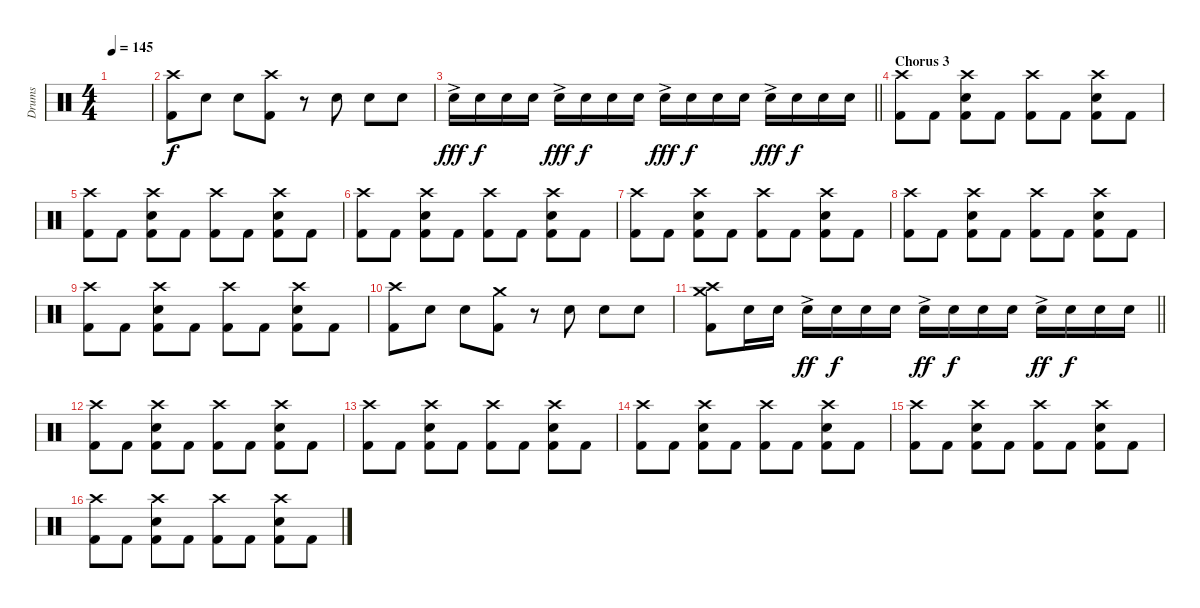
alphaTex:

\track ("Drums" "Drums") {instrument percussion}
\staff {score}
\articulation defaults
\ts (4 4)
\tempo 145
\clef neutral
\ks c
|
("Crash high (hit)" "Kick (hit) 2").8 "Snare (hit) 2".8 "Snare (hit) 2".8 ("Crash high (hit)" "Kick (hit) 2").8 r.8 "Snare (hit) 2".8 "Snare (hit) 2".8 "Snare (hit) 2".8 |
\barLineRight lightlight "Snare (hit) 2"{ac}.16{dy fff} "Snare (hit) 2".16{dy f} "Snare (hit) 2".16 "Snare (hit) 2".16 "Snare (hit) 2"{ac}.16{dy fff} "Snare (hit) 2".16{dy f} "Snare (hit) 2".16 "Snare (hit) 2".16 "Snare (hit) 2"{ac}.16{dy fff} "Snare (hit) 2".16{dy f} "Snare (hit) 2".16 "Snare (hit) 2".16 "Snare (hit) 2"{ac}.16{dy fff} "Snare (hit) 2".16{dy f} "Snare (hit) 2".16 "Snare (hit) 2".16
|
\section ("" "Chorus 3")
("Crash high (hit)" "Kick (hit) 2").8 "Kick (hit) 2".8 ("Crash high (hit)" "Snare (hit) 2" "Kick (hit) 2").8 "Kick (hit) 2".8 ("Crash high (hit)" "Kick (hit) 2").8 "Kick (hit) 2".8 ("Crash high (hit)" "Snare (hit) 2" "Kick (hit) 2").8 "Kick (hit) 2".8 |
("Crash high (hit)" "Kick (hit) 2").8 "Kick (hit) 2".8 ("Crash high (hit)" "Snare (hit) 2" "Kick (hit) 2").8 "Kick (hit) 2".8 ("Crash high (hit)" "Kick (hit) 2").8 "Kick (hit) 2".8 ("Crash high (hit)" "Snare (hit) 2" "Kick (hit) 2").8 "Kick (hit) 2".8 |
("Crash high (hit)" "Kick (hit) 2").8 "Kick (hit) 2".8 ("Crash high (hit)" "Snare (hit) 2" "Kick (hit) 2").8 "Kick (hit) 2".8 ("Crash high (hit)" "Kick (hit) 2").8 "Kick (hit) 2".8 ("Crash high (hit)" "Snare (hit) 2" "Kick (hit) 2").8 "Kick (hit) 2".8 |
("Crash high (hit)" "Kick (hit) 2").8 "Kick (hit) 2".8 ("Crash high (hit)" "Snare (hit) 2" "Kick (hit) 2").8 "Kick (hit) 2".8 ("Crash high (hit)" "Kick (hit) 2").8 "Kick (hit) 2".8 ("Crash high (hit)" "Snare (hit) 2" "Kick (hit) 2").8 "Kick (hit) 2".8 |
("Crash high (hit)" "Kick (hit) 2").8 "Kick (hit) 2".8 ("Crash high (hit)" "Snare (hit) 2" "Kick (hit) 2").8 "Kick (hit) 2".8 ("Crash high (hit)" "Kick (hit) 2").8 "Kick (hit) 2".8 ("Crash high (hit)" "Snare (hit) 2" "Kick (hit) 2").8 "Kick (hit) 2".8 |
("Crash high (hit)" "Kick (hit) 2").8 "Kick (hit) 2".8 ("Crash high (hit)" "Snare (hit) 2" "Kick (hit) 2").8 "Kick (hit) 2".8 ("Crash high (hit)" "Kick (hit) 2").8 "Kick (hit) 2".8 ("Crash high (hit)" "Snare (hit) 2" "Kick (hit) 2").8 "Kick (hit) 2".8 |
("Crash high (hit)" "Kick (hit) 2").8 "Snare (hit) 2".8 "Snare (hit) 2".8 ("Crash medium (hit)" "Kick (hit) 2").8 r.8 "Snare (hit) 2".8 "Snare (hit) 2".8 "Snare (hit) 2".8 |
\barLineRight lightlight
("Crash high (hit)" "Crash medium (hit)" "Kick (hit) 2").8 "Snare (hit) 2".16 "Snare (hit) 2".16 "Snare (hit) 2"{ac}.16{dy ff} "Snare (hit) 2".16{dy f} "Snare (hit) 2".16 "Snare (hit) 2".16 "Snare (hit) 2"{ac}.16{dy ff} "Snare (hit) 2".16{dy f} "Snare (hit) 2".16 "Snare (hit) 2".16 "Snare (hit) 2"{ac}.16{dy ff} "Snare (hit) 2".16{dy f} "Snare (hit) 2".16 "Snare (hit) 2".16 |
("Crash high (hit)" "Kick (hit) 2").8 "Kick (hit) 2".8 ("Crash high (hit)" "Snare (hit) 2" "Kick (hit) 2").8 "Kick (hit) 2".8 ("Crash high (hit)" "Kick (hit) 2").8 "Kick (hit) 2".8 ("Crash high (hit)" "Snare (hit) 2" "Kick (hit) 2").8 "Kick (hit) 2".8 |
("Crash high (hit)" "Kick (hit) 2").8 "Kick (hit) 2".8 ("Crash high (hit)" "Snare (hit) 2" "Kick (hit) 2").8 "Kick (hit) 2".8 ("Crash high (hit)" "Kick (hit) 2").8 "Kick (hit) 2".8 ("Crash high (hit)" "Snare (hit) 2" "Kick (hit) 2").8 "Kick (hit) 2".8 |
("Crash high (hit)" "Kick (hit) 2").8 "Kick (hit) 2".8 ("Crash high (hit)" "Snare (hit) 2" "Kick (hit) 2").8 "Kick (hit) 2".8 ("Crash high (hit)" "Kick (hit) 2").8 "Kick (hit) 2".8 ("Crash high (hit)" "Snare (hit) 2" "Kick (hit) 2").8 "Kick (hit) 2".8 |
("Crash high (hit)" "Kick (hit) 2").8 "Kick (hit) 2".8 ("Crash high (hit)" "Snare (hit) 2" "Kick (hit) 2").8 "Kick (hit) 2".8 ("Crash high (hit)" "Kick (hit) 2").8 "Kick (hit) 2".8 ("Crash high (hit)" "Snare (hit) 2" "Kick (hit) 2").8 "Kick (hit) 2".8 |
("Crash high (hit)" "Kick (hit) 2").8 "Kick (hit) 2".8 ("Crash high (hit)" "Snare (hit) 2" "Kick (hit) 2").8 "Kick (hit) 2".8 ("Crash high (hit)" "Kick (hit) 2").8 "Kick (hit) 2".8 ("Crash high (hit)" "Snare (hit) 2" "Kick (hit) 2").8 "Kick (hit) 2".8
